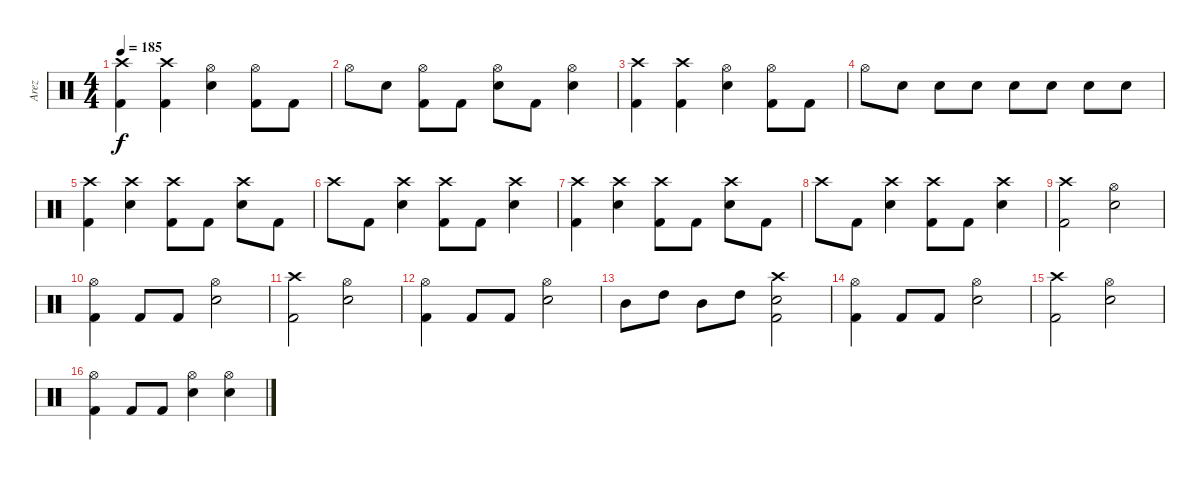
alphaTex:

\track ("Arez" "Arez") {instrument percussion}
\staff {score}
\articulation defaults
\ts (4 4)
\tempo 185
\clef neutral
\ks c
("Crash high (hit)" "Kick (hit) 2").4{dy f} ("Crash high (hit)" "Kick (hit) 2").4 ("Electric Snare (hit)" "Hi-Hat (open)").4 ("Kick (hit) 2" "Hi-Hat (open)").8 "Kick (hit) 2".8 |
"Hi-Hat (open)".8 "Electric Snare (hit)".8 ("Kick (hit) 2" "Hi-Hat (open)").8 "Kick (hit) 2".8 ("Electric Snare (hit)" "Hi-Hat (open)").8 "Kick (hit) 2".8 ("Hi-Hat (open)" "Electric Snare (hit)").4 |
("Crash high (hit)" "Kick (hit) 2").4 ("Crash high (hit)" "Kick (hit) 2").4 ("Electric Snare (hit)" "Hi-Hat (open)").4 ("Kick (hit) 2" "Hi-Hat (open)").8 "Kick (hit) 2".8 |
"Hi-Hat (open)".8 "Electric Snare (hit)".8 "Electric Snare (hit)".8 "Electric Snare (hit)".8 "Electric Snare (hit)".8 "Electric Snare (hit)".8 "Electric Snare (hit)".8 "Electric Snare (hit)".8 |
("Crash high (hit)" "Kick (hit) 2").4 ("Crash high (hit)" "Electric Snare (hit)").4 ("Crash high (hit)" "Kick (hit) 2").8 "Kick (hit) 2".8 ("Crash high (hit)" "Electric Snare (hit)").8 "Kick (hit) 2".8 |
"Crash high (hit)".8 "Kick (hit) 2".8 ("Electric Snare (hit)" "Crash high (hit)").4 ("Kick (hit) 2" "Crash high (hit)").8 "Kick (hit) 2".8 ("Electric Snare (hit)" "Crash high (hit)").4 |
("Crash high (hit)" "Kick (hit) 2").4 ("Crash high (hit)" "Electric Snare (hit)").4 ("Crash high (hit)" "Kick (hit) 2").8 "Kick (hit) 2".8 ("Crash high (hit)" "Electric Snare (hit)").8 "Kick (hit) 2".8 |
"Crash high (hit)".8 "Kick (hit) 2".8 ("Electric Snare (hit)" "Crash high (hit)").4 ("Kick (hit) 2" "Crash high (hit)").8 "Kick (hit) 2".8 ("Electric Snare (hit)" "Crash high (hit)").4 |
("Crash high (hit)" "Kick (hit) 2").2 ("Electric Snare (hit)" "Hi-Hat (open)").2 |
("Kick (hit) 2" "Hi-Hat (open)").4 "Kick (hit) 2".8 "Kick (hit) 2".8 ("Electric Snare (hit)" "Hi-Hat (open)").2 |
("Crash high (hit)" "Kick (hit) 2").2 ("Electric Snare (hit)" "Hi-Hat (open)").2 |
("Kick (hit) 2" "Hi-Hat (open)").4 "Kick (hit) 2".8 "Kick (hit) 2".8 ("Electric Snare (hit)" "Hi-Hat (open)").2 |
"Mid Tom (hit)".8 "High Tom (hit)".8 "Mid Tom (hit)".8 "High Tom (hit)".8 ("Electric Snare (hit)" "Crash high (hit)" "Kick (hit) 2").2 |
("Kick (hit) 2" "Hi-Hat (open)").4 "Kick (hit) 2".8 "Kick (hit) 2".8 ("Electric Snare (hit)" "Hi-Hat (open)").2 |
("Crash high (hit)" "Kick (hit) 2").2 ("Electric Snare (hit)" "Hi-Hat (open)").2 |
("Kick (hit) 2" "Hi-Hat (open)").4 "Kick (hit) 2".8 "Kick (hit) 2".8 ("Electric Snare (hit)" "Hi-Hat (open)").4 ("Electric Snare (hit)" "Hi-Hat (open)").4
